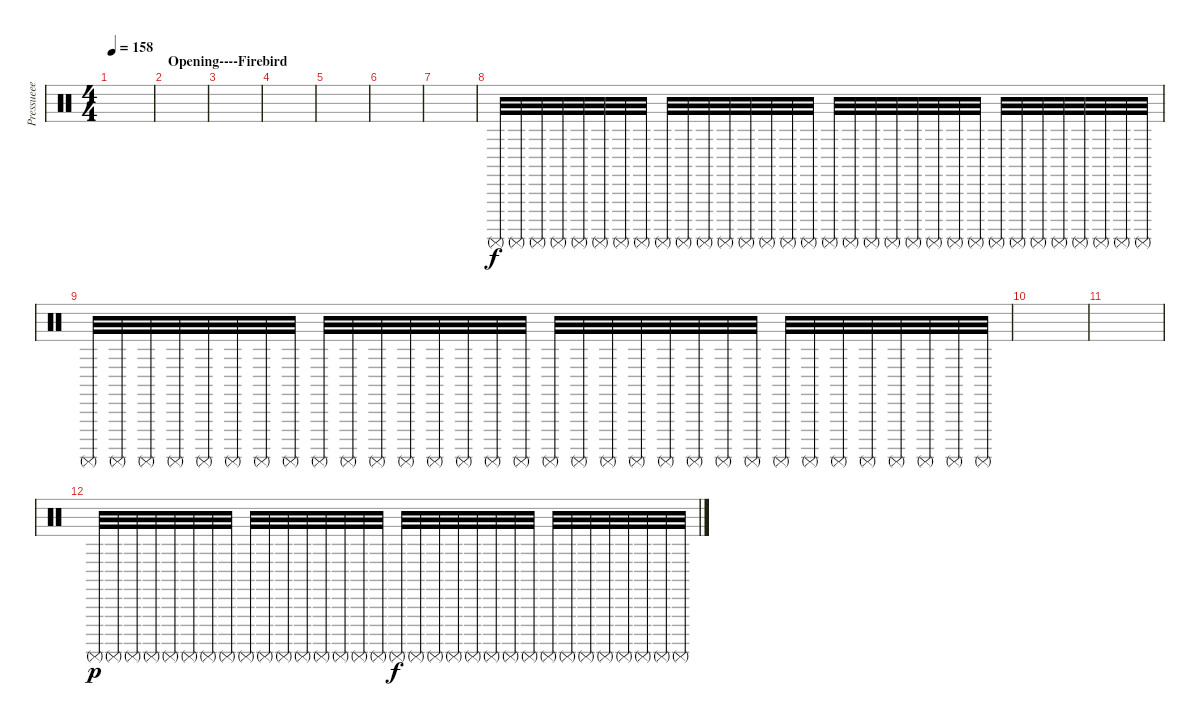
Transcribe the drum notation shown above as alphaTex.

\track ("Pressueee " "Pressueee ") {instrument percussion}
\staff {score}
\articulation defaults
\ts (4 4)
\tempo 158
\clef neutral
\ks c
|
\section ("" "Opening----Firebird")
|
|
|
|
|
|
"Surdo (mute)".32 "Surdo (mute)".32 "Surdo (mute)".32 "Surdo (mute)".32 "Surdo (mute)".32 "Surdo (mute)".32 "Surdo (mute)".32 "Surdo (mute)".32 "Surdo (mute)".32 "Surdo (mute)".32 "Surdo (mute)".32 "Surdo (mute)".32 "Surdo (mute)".32 "Surdo (mute)".32 "Surdo (mute)".32 "Surdo (mute)".32 "Surdo (mute)".32{dy f} "Surdo (mute)".32 "Surdo (mute)".32 "Surdo (mute)".32 "Surdo (mute)".32 "Surdo (mute)".32 "Surdo (mute)".32 "Surdo (mute)".32 "Surdo (mute)".32 "Surdo (mute)".32 "Surdo (mute)".32 "Surdo (mute)".32 "Surdo (mute)".32 "Surdo (mute)".32 "Surdo (mute)".32 "Surdo (mute)".32 |
"Surdo (mute)".32 "Surdo (mute)".32 "Surdo (mute)".32 "Surdo (mute)".32 "Surdo (mute)".32 "Surdo (mute)".32 "Surdo (mute)".32 "Surdo (mute)".32 "Surdo (mute)".32 "Surdo (mute)".32 "Surdo (mute)".32 "Surdo (mute)".32 "Surdo (mute)".32 "Surdo (mute)".32 "Surdo (mute)".32 "Surdo (mute)".32 "Surdo (mute)".32 "Surdo (mute)".32 "Surdo (mute)".32 "Surdo (mute)".32 "Surdo (mute)".32 "Surdo (mute)".32 "Surdo (mute)".32 "Surdo (mute)".32 "Surdo (mute)".32 "Surdo (mute)".32 "Surdo (mute)".32 "Surdo (mute)".32 "Surdo (mute)".32 "Surdo (mute)".32 "Surdo (mute)".32 "Surdo (mute)".32 |
|
|
"Surdo (mute)".32{dy p} "Surdo (mute)".32 "Surdo (mute)".32 "Surdo (mute)".32 "Surdo (mute)".32 "Surdo (mute)".32 "Surdo (mute)".32 "Surdo (mute)".32 "Surdo (mute)".32 "Surdo (mute)".32 "Surdo (mute)".32 "Surdo (mute)".32 "Surdo (mute)".32 "Surdo (mute)".32 "Surdo (mute)".32 "Surdo (mute)".32 "Surdo (mute)".32{dy f} "Surdo (mute)".32 "Surdo (mute)".32 "Surdo (mute)".32 "Surdo (mute)".32 "Surdo (mute)".32 "Surdo (mute)".32 "Surdo (mute)".32 "Surdo (mute)".32 "Surdo (mute)".32 "Surdo (mute)".32 "Surdo (mute)".32 "Surdo (mute)".32 "Surdo (mute)".32 "Surdo (mute)".32 "Surdo (mute)".32
